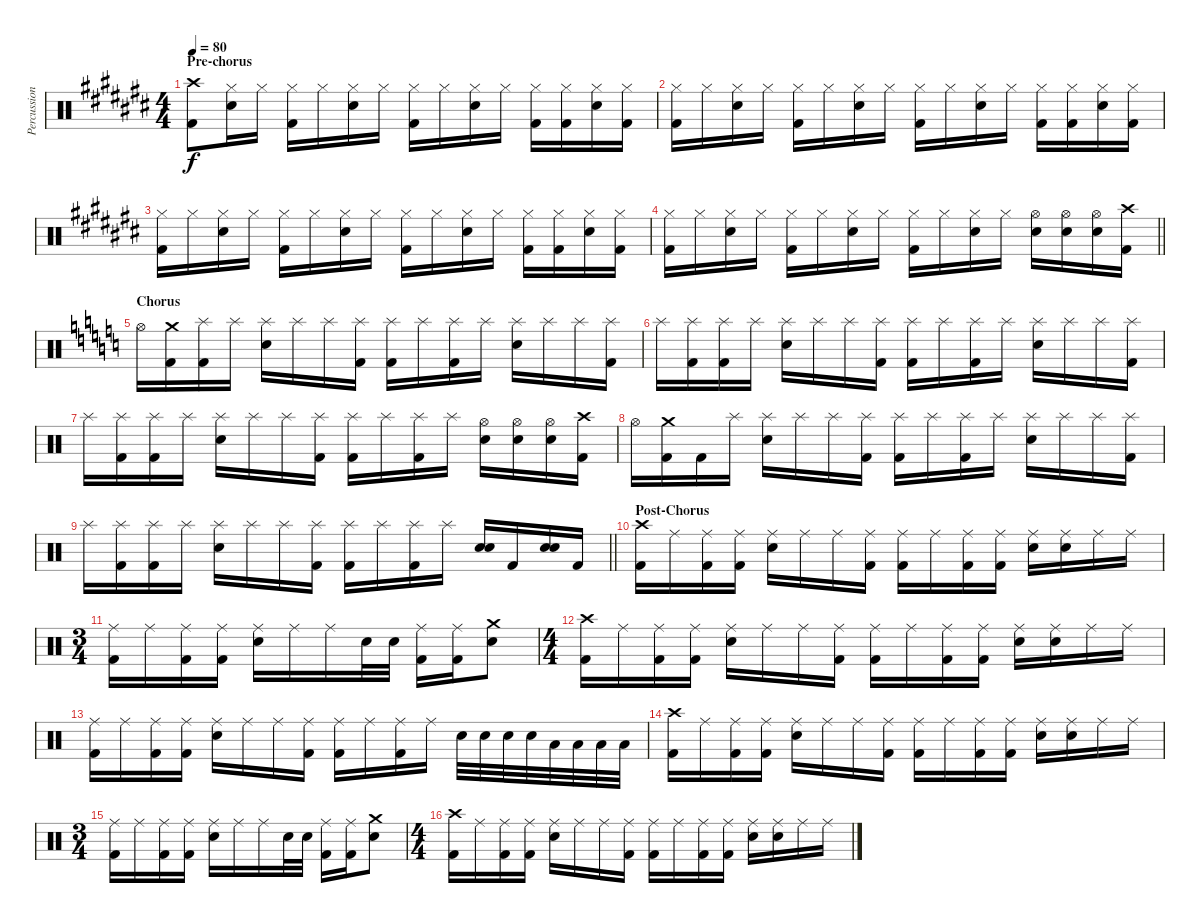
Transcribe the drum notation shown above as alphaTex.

\track ("Percussion" "Percussion") {instrument percussion}
\staff {score}
\articulation defaults
\ts (4 4)
\section ("" "Pre-chorus")
\tempo 80
\clef neutral
\ks c#
("Crash high (hit)" "Kick (hit) 2").8{dy f} ("Hi-Hat (closed)" "Electric Snare (hit)").16 "Hi-Hat (closed)".16 ("Hi-Hat (closed)" "Kick (hit) 2").16 "Hi-Hat (closed)".16 ("Hi-Hat (closed)" "Electric Snare (hit)").16 "Hi-Hat (closed)".16 ("Hi-Hat (closed)" "Kick (hit) 2").16 "Hi-Hat (closed)".16 ("Hi-Hat (closed)" "Electric Snare (hit)").16 "Hi-Hat (closed)".16 ("Hi-Hat (closed)" "Kick (hit) 2").16 ("Hi-Hat (closed)" "Kick (hit) 2").16 ("Hi-Hat (closed)" "Electric Snare (hit)").16 ("Hi-Hat (closed)" "Kick (hit) 2").16 |
("Hi-Hat (closed)" "Kick (hit) 2").16 "Hi-Hat (closed)".16 ("Hi-Hat (closed)" "Electric Snare (hit)").16 "Hi-Hat (closed)".16 ("Hi-Hat (closed)" "Kick (hit) 2").16 "Hi-Hat (closed)".16 ("Hi-Hat (closed)" "Electric Snare (hit)").16 "Hi-Hat (closed)".16 ("Hi-Hat (closed)" "Kick (hit) 2").16 "Hi-Hat (closed)".16 ("Hi-Hat (closed)" "Electric Snare (hit)").16 "Hi-Hat (closed)".16 ("Hi-Hat (closed)" "Kick (hit) 2").16 ("Hi-Hat (closed)" "Kick (hit) 2").16 ("Hi-Hat (closed)" "Electric Snare (hit)").16 ("Hi-Hat (closed)" "Kick (hit) 2").16 |
("Hi-Hat (closed)" "Kick (hit) 2").16 "Hi-Hat (closed)".16 ("Hi-Hat (closed)" "Electric Snare (hit)").16 "Hi-Hat (closed)".16 ("Hi-Hat (closed)" "Kick (hit) 2").16 "Hi-Hat (closed)".16 ("Hi-Hat (closed)" "Electric Snare (hit)").16 "Hi-Hat (closed)".16 ("Hi-Hat (closed)" "Kick (hit) 2").16 "Hi-Hat (closed)".16 ("Hi-Hat (closed)" "Electric Snare (hit)").16 "Hi-Hat (closed)".16 ("Hi-Hat (closed)" "Kick (hit) 2").16 ("Hi-Hat (closed)" "Kick (hit) 2").16 ("Hi-Hat (closed)" "Electric Snare (hit)").16 ("Hi-Hat (closed)" "Kick (hit) 2").16 |
\barLineRight lightlight
("Hi-Hat (closed)" "Kick (hit) 2").16 "Hi-Hat (closed)".16 ("Hi-Hat (closed)" "Electric Snare (hit)").16 "Hi-Hat (closed)".16 ("Hi-Hat (closed)" "Kick (hit) 2").16 "Hi-Hat (closed)".16 ("Hi-Hat (closed)" "Electric Snare (hit)").16 "Hi-Hat (closed)".16 ("Hi-Hat (closed)" "Kick (hit) 2").16 "Hi-Hat (closed)".16 ("Hi-Hat (closed)" "Electric Snare (hit)").16 "Hi-Hat (closed)".16 ("Hi-Hat (open)" "Electric Snare (hit)").16 ("Hi-Hat (open)" "Electric Snare (hit)").16 ("Hi-Hat (open)" "Electric Snare (hit)").16 ("Crash high (hit)" "Kick (hit) 2").16 |
\section ("" "Chorus")
\ks c "Hi-Hat (open)".16
("Crash medium (hit)" "Kick (hit) 2").16 ("Splash (hit)" "Kick (hit) 2").16 "Splash (hit)".16 ("Splash (hit)" "Electric Snare (hit)").16 "Splash (hit)".16 "Splash (hit)".16 ("Splash (hit)" "Kick (hit) 2").16 ("Splash (hit)" "Kick (hit) 2").16 "Splash (hit)".16 ("Splash (hit)" "Kick (hit) 2").16 "Splash (hit)".16 ("Splash (hit)" "Electric Snare (hit)").16 "Splash (hit)".16 "Splash (hit)".16 ("Splash (hit)" "Kick (hit) 2").16 |
"Splash (hit)".16 ("Splash (hit)" "Kick (hit) 2").16 ("Splash (hit)" "Kick (hit) 2").16 "Splash (hit)".16 ("Splash (hit)" "Electric Snare (hit)").16 "Splash (hit)".16 "Splash (hit)".16 ("Splash (hit)" "Kick (hit) 2").16 ("Splash (hit)" "Kick (hit) 2").16 "Splash (hit)".16 ("Splash (hit)" "Kick (hit) 2").16 "Splash (hit)".16 ("Splash (hit)" "Electric Snare (hit)").16 "Splash (hit)".16 "Splash (hit)".16 ("Splash (hit)" "Kick (hit) 2").16 |
"Splash (hit)".16 ("Splash (hit)" "Kick (hit) 2").16 ("Splash (hit)" "Kick (hit) 2").16 "Splash (hit)".16 ("Splash (hit)" "Electric Snare (hit)").16 "Splash (hit)".16 "Splash (hit)".16 ("Splash (hit)" "Kick (hit) 2").16 ("Splash (hit)" "Kick (hit) 2").16 "Splash (hit)".16 ("Splash (hit)" "Kick (hit) 2").16 "Splash (hit)".16 ("Hi-Hat (open)" "Electric Snare (hit)").16 ("Hi-Hat (open)" "Electric Snare (hit)").16 ("Hi-Hat (open)" "Electric Snare (hit)").16 ("Crash high (hit)" "Kick (hit) 2").16 |
"Hi-Hat (open)".16 ("Crash medium (hit)" "Kick (hit) 2").16 "Kick (hit) 2".16 "Splash (hit)".16 ("Splash (hit)" "Electric Snare (hit)").16 "Splash (hit)".16 "Splash (hit)".16 ("Splash (hit)" "Kick (hit) 2").16 ("Splash (hit)" "Kick (hit) 2").16 "Splash (hit)".16 ("Splash (hit)" "Kick (hit) 2").16 "Splash (hit)".16 ("Splash (hit)" "Electric Snare (hit)").16 "Splash (hit)".16 "Splash (hit)".16 ("Splash (hit)" "Kick (hit) 2").16 |
\barLineRight lightlight "Splash (hit)".16
("Splash (hit)" "Kick (hit) 2").16 ("Splash (hit)" "Kick (hit) 2").16 "Splash (hit)".16 ("Splash (hit)" "Electric Snare (hit)").16 "Splash (hit)".16 "Splash (hit)".16 ("Splash (hit)" "Kick (hit) 2").16 ("Splash (hit)" "Kick (hit) 2").16 "Splash (hit)".16 ("Splash (hit)" "Kick (hit) 2").16 "Splash (hit)".16 ("Electric Snare (hit)" "Electric Snare (hit)").16 "Kick (hit) 2".16 ("Electric Snare (hit)" "Electric Snare (hit)").16 "Kick (hit) 2".16 |
\section ("" "Post-Chorus")
("Crash high (hit)" "Kick (hit) 2").16 "Ride (middle)".16 ("Ride (middle)" "Kick (hit) 2").16 ("Ride (middle)" "Kick (hit) 2").16 ("Ride (middle)" "Electric Snare (hit)").16 "Ride (middle)".16 "Ride (middle)".16 ("Ride (middle)" "Kick (hit) 2").16 ("Ride (middle)" "Kick (hit) 2").16 "Ride (middle)".16 ("Ride (middle)" "Kick (hit) 2").16 ("Ride (middle)" "Kick (hit) 2").16 ("Ride (middle)" "Electric Snare (hit)").16 ("Ride (middle)" "Electric Snare (hit)").16 "Ride (middle)".16 "Ride (middle)".16 |
\ts (3 4)
("Ride (middle)" "Kick (hit) 2").16 "Ride (middle)".16 ("Ride (middle)" "Kick (hit) 2").16 ("Ride (middle)" "Kick (hit) 2").16 ("Ride (middle)" "Electric Snare (hit)").16 "Ride (middle)".16 "Ride (middle)".16 "Electric Snare (hit)".32 "Electric Snare (hit)".32 ("Ride (middle)" "Kick (hit) 2").16 ("Ride (middle)" "Kick (hit) 2").16 ("Crash medium (hit)" "Electric Snare (hit)").8 |
\ts (4 4)
("Crash high (hit)" "Kick (hit) 2").16 "Ride (middle)".16 ("Ride (middle)" "Kick (hit) 2").16 ("Ride (middle)" "Kick (hit) 2").16 ("Ride (middle)" "Electric Snare (hit)").16 "Ride (middle)".16 "Ride (middle)".16 ("Ride (middle)" "Kick (hit) 2").16 ("Ride (middle)" "Kick (hit) 2").16 "Ride (middle)".16 ("Ride (middle)" "Kick (hit) 2").16 ("Ride (middle)" "Kick (hit) 2").16 ("Ride (middle)" "Electric Snare (hit)").16 ("Ride (middle)" "Electric Snare (hit)").16 "Ride (middle)".16 "Ride (middle)".16 |
("Ride (middle)" "Kick (hit) 2").16 "Ride (middle)".16 ("Ride (middle)" "Kick (hit) 2").16 ("Ride (middle)" "Kick (hit) 2").16 ("Ride (middle)" "Electric Snare (hit)").16 "Ride (middle)".16 "Ride (middle)".16 ("Ride (middle)" "Kick (hit) 2").16 ("Ride (middle)" "Kick (hit) 2").16 "Ride (middle)".16 ("Ride (middle)" "Kick (hit) 2").16 "Ride (middle)".16 "Electric Snare (hit)".32 "Electric Snare (hit)".32 "Electric Snare (hit)".32 "Electric Snare (hit)".32 "Low Tom (hit)".32 "Low Tom (hit)".32 "Low Floor Tom (hit)".32 "Low Floor Tom (hit)".32 |
("Crash high (hit)" "Kick (hit) 2").16 "Ride (middle)".16 ("Ride (middle)" "Kick (hit) 2").16 ("Ride (middle)" "Kick (hit) 2").16 ("Ride (middle)" "Electric Snare (hit)").16 "Ride (middle)".16 "Ride (middle)".16 ("Ride (middle)" "Kick (hit) 2").16 ("Ride (middle)" "Kick (hit) 2").16 "Ride (middle)".16 ("Ride (middle)" "Kick (hit) 2").16 ("Ride (middle)" "Kick (hit) 2").16 ("Ride (middle)" "Electric Snare (hit)").16 ("Ride (middle)" "Electric Snare (hit)").16 "Ride (middle)".16 "Ride (middle)".16 |
\ts (3 4)
("Ride (middle)" "Kick (hit) 2").16 "Ride (middle)".16 ("Ride (middle)" "Kick (hit) 2").16 ("Ride (middle)" "Kick (hit) 2").16 ("Ride (middle)" "Electric Snare (hit)").16 "Ride (middle)".16 "Ride (middle)".16 "Electric Snare (hit)".32 "Electric Snare (hit)".32 ("Ride (middle)" "Kick (hit) 2").16 ("Ride (middle)" "Kick (hit) 2").16 ("Crash medium (hit)" "Electric Snare (hit)").8 |
\ts (4 4)
("Crash high (hit)" "Kick (hit) 2").16 "Ride (middle)".16 ("Ride (middle)" "Kick (hit) 2").16 ("Ride (middle)" "Kick (hit) 2").16 ("Ride (middle)" "Electric Snare (hit)").16 "Ride (middle)".16 "Ride (middle)".16 ("Ride (middle)" "Kick (hit) 2").16 ("Ride (middle)" "Kick (hit) 2").16 "Ride (middle)".16 ("Ride (middle)" "Kick (hit) 2").16 ("Ride (middle)" "Kick (hit) 2").16 ("Ride (middle)" "Electric Snare (hit)").16 ("Ride (middle)" "Electric Snare (hit)").16 "Ride (middle)".16 "Ride (middle)".16
